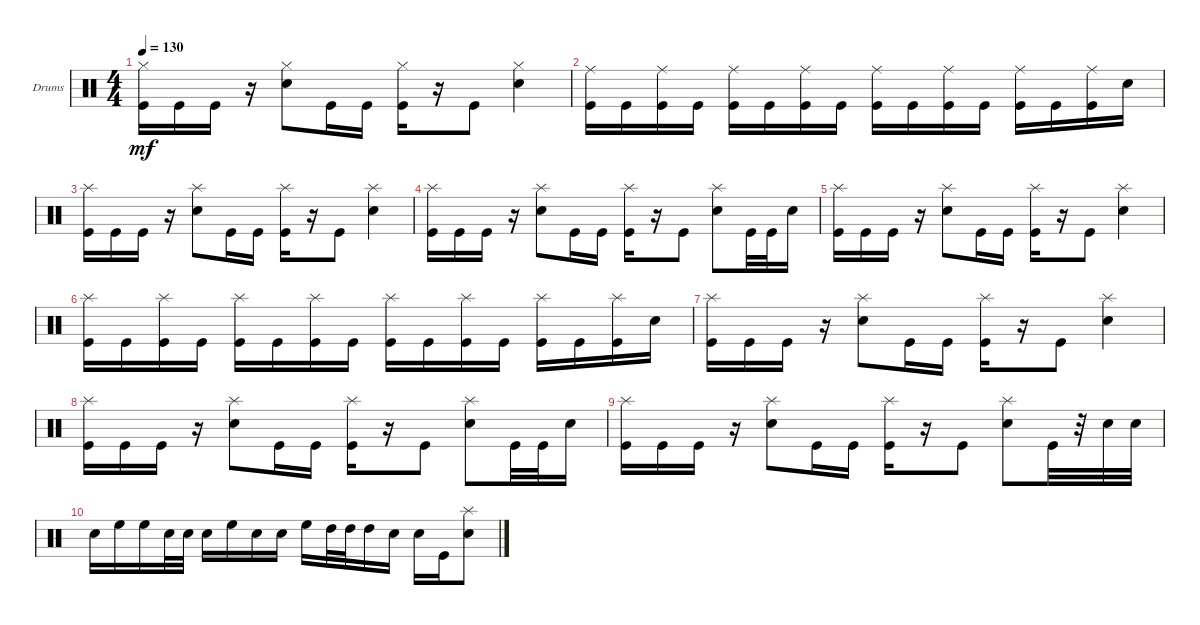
\defaultSystemsLayout 4
\bracketExtendMode groupsimilarinstruments
\firstSystemTrackNameOrientation horizontal
\otherSystemsTrackNameOrientation horizontal
\track ("Drumkit" "Drums") {instrument percussion}
\staff {score}
\articulation defaults
\ts (4 4)
\tempo 130
\clef neutral
\ks c
("Kick (hit)" "Hi-Hat (closed)").16{dy mf} "Kick (hit)".16 "Kick (hit)".16 r.16 ("Snare (hit) 2" "Hi-Hat (closed)").8 "Kick (hit)".16 "Kick (hit)".16 ("Kick (hit)" "Hi-Hat (closed)").16 r.16 "Kick (hit)".8 ("Snare (hit) 2" "Hi-Hat (closed)").4 |
("Kick (hit)" "Ride (middle)").16 "Kick (hit)".16 ("Kick (hit)" "Ride (middle)").16 "Kick (hit)".16 ("Kick (hit)" "Ride (middle)").16 "Kick (hit)".16 ("Kick (hit)" "Ride (middle)").16 "Kick (hit)".16 ("Kick (hit)" "Ride (middle)").16 "Kick (hit)".16 ("Kick (hit)" "Ride (middle)").16 "Kick (hit)".16 ("Kick (hit)" "Ride (middle)").16 "Kick (hit)".16 ("Kick (hit)" "Ride (middle)").16 "Snare (hit) 2".16 |
("Kick (hit)" "Splash (hit)").16 "Kick (hit)".16 "Kick (hit)".16 r.16 ("Snare (hit) 2" "Splash (hit)").8 "Kick (hit)".16 "Kick (hit)".16 ("Kick (hit)" "Splash (hit)").16 r.16 "Kick (hit)".8 ("Snare (hit) 2" "Splash (hit)").4 |
("Kick (hit)" "Splash (hit)").16 "Kick (hit)".16 "Kick (hit)".16 r.16 ("Snare (hit) 2" "Splash (hit)").8 "Kick (hit)".16 "Kick (hit)".16 ("Kick (hit)" "Splash (hit)").16 r.16 "Kick (hit)".8 ("Snare (hit) 2" "Splash (hit)").8 "Kick (hit)".32 "Kick (hit)".32 "Snare (hit) 2".16 |
("Kick (hit)" "Splash (hit)").16 "Kick (hit)".16 "Kick (hit)".16 r.16 ("Snare (hit) 2" "Splash (hit)").8 "Kick (hit)".16 "Kick (hit)".16 ("Kick (hit)" "Splash (hit)").16 r.16 "Kick (hit)".8 ("Snare (hit) 2" "Splash (hit)").4 |
("Kick (hit)" "Splash (hit)").16 "Kick (hit)".16 ("Kick (hit)" "Splash (hit)").16 "Kick (hit)".16 ("Kick (hit)" "Splash (hit)").16 "Kick (hit)".16 ("Kick (hit)" "Splash (hit)").16 "Kick (hit)".16 ("Kick (hit)" "Splash (hit)").16 "Kick (hit)".16 ("Kick (hit)" "Splash (hit)").16 "Kick (hit)".16 ("Kick (hit)" "Splash (hit)").16 "Kick (hit)".16 ("Splash (hit)" "Kick (hit)").16 "Snare (hit) 2".16 |
("Kick (hit)" "Splash (hit)").16 "Kick (hit)".16 "Kick (hit)".16 r.16 ("Snare (hit) 2" "Splash (hit)").8 "Kick (hit)".16 "Kick (hit)".16 ("Kick (hit)" "Splash (hit)").16 r.16 "Kick (hit)".8 ("Snare (hit) 2" "Splash (hit)").4 |
("Kick (hit)" "Splash (hit)").16 "Kick (hit)".16 "Kick (hit)".16 r.16 ("Snare (hit) 2" "Splash (hit)").8 "Kick (hit)".16 "Kick (hit)".16 ("Kick (hit)" "Splash (hit)").16 r.16 "Kick (hit)".8 ("Snare (hit) 2" "Splash (hit)").8 "Kick (hit)".32 "Kick (hit)".32 "Snare (hit) 2".16 |
("Kick (hit)" "Splash (hit)").16 "Kick (hit)".16 "Kick (hit)".16 r.16 ("Snare (hit) 2" "Splash (hit)").8 "Kick (hit)".16 "Kick (hit)".16 ("Kick (hit)" "Splash (hit)").16 r.16 "Kick (hit)".8 ("Snare (hit) 2" "Splash (hit)").8 "Kick (hit)".32 r.32 "Snare (hit) 2".32 "Snare (hit) 2".32 |
"Snare (hit) 2".16 "High Floor Tom (hit)".16 "High Floor Tom (hit)".16 "Snare (hit) 2".32 "Snare (hit) 2".32 "Snare (hit) 2".16 "High Floor Tom (hit)".16 "Snare (hit) 2".16 "Snare (hit) 2".16 "High Floor Tom (hit)".16 "High Tom (hit)".32 "High Tom (hit)".32 "High Tom (hit)".16 "Snare (hit) 2".16 "Snare (hit) 2".16 "Kick (hit)".16 ("Snare (hit) 2" "Splash (hit)").8
